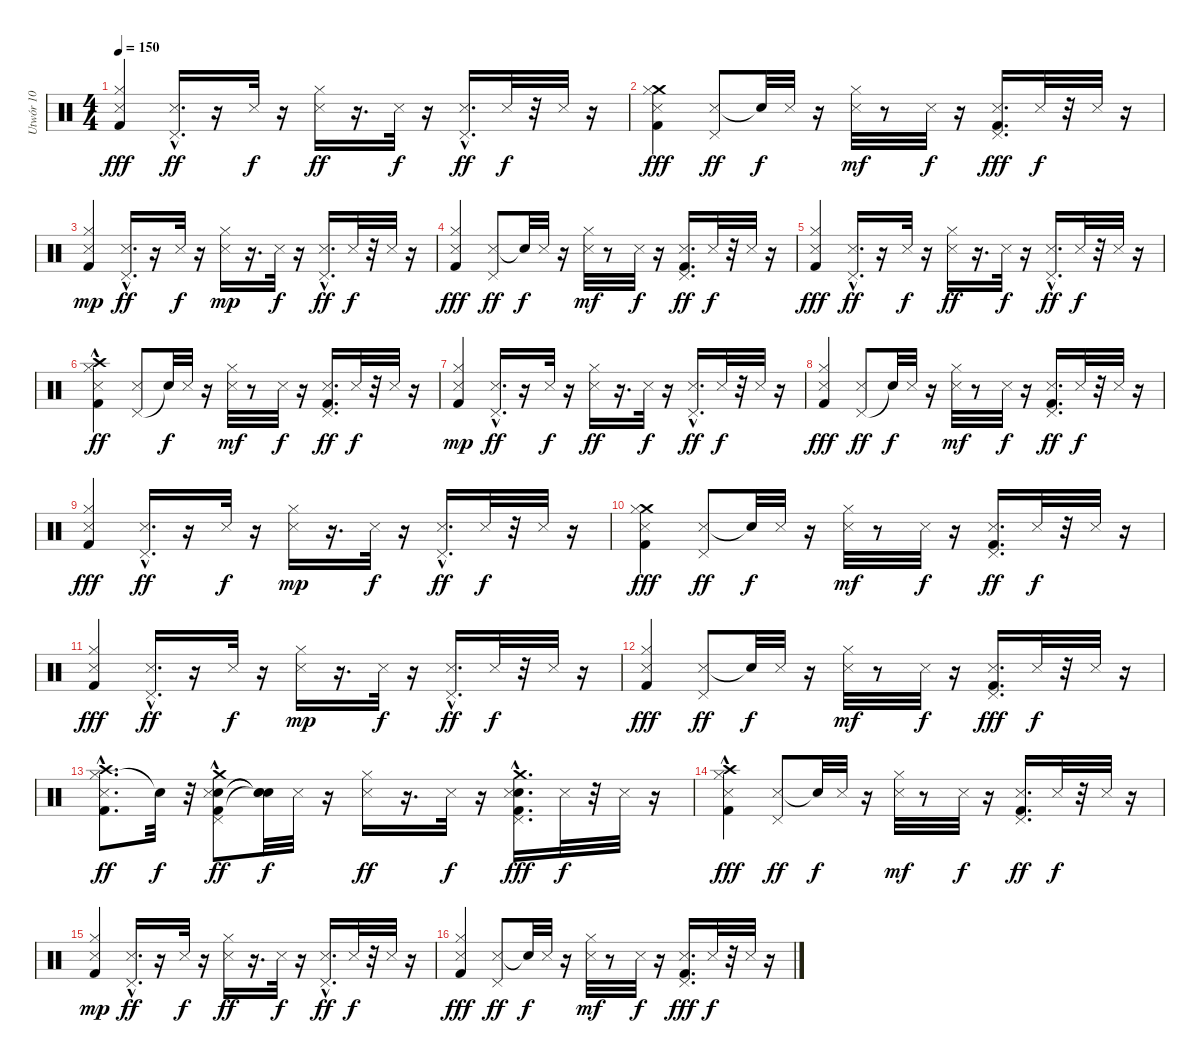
\track ("Utwór 10" "Utwór 10") {instrument percussion}
\staff {score}
\articulation defaults
\ts (4 4)
\tempo 150
\clef neutral
\ks c
("Snare (side stick) 3" "Hi-Hat (closed)" "Kick (hit) 2").4{dy fff} ("Pedal Hi-Hat (hit)"{hac} "Snare (side stick) 3").16{d dy ff} r.16 "Snare (side stick) 3".32{dy f} r.16 ("Hi-Hat (closed)" "Snare (side stick) 3").16{dy ff} r.16{d} "Snare (side stick) 3".32{dy f} r.16 ("Snare (side stick) 3" "Pedal Hi-Hat (hit)"{hac}).16{d dy ff} "Snare (side stick) 3".32{dy f} r.32 "Snare (side stick) 3".32 r.16 |
("Kick (hit) 2" "Snare (side stick) 3" "Crash medium (hit)" "Hi-Hat (closed)").4{dy fff} ("Snare (side stick) 3" "Pedal Hi-Hat (hit)").8{dy ff} "Snare (hit)"{t}.32{dy f} "Snare (side stick) 3".32 r.16 ("Hi-Hat (closed)" "Snare (side stick) 3").32{dy mf} r.8 "Snare (side stick) 3".32{dy f} r.16 ("Pedal Hi-Hat (hit)" "Kick (hit) 2" "Snare (side stick) 3").16{d dy fff} "Snare (side stick) 3".32{dy f} r.32 "Snare (side stick) 3".32 r.16 |
("Kick (hit) 2" "Snare (side stick) 3" "Hi-Hat (closed)").4{dy mp} ("Pedal Hi-Hat (hit)"{hac} "Snare (side stick) 3").16{d dy ff} r.16 "Snare (side stick) 3".32{dy f} r.16 ("Snare (side stick) 3" "Hi-Hat (closed)").16{dy mp} r.16{d} "Snare (side stick) 3".32{dy f} r.16 ("Snare (side stick) 3" "Pedal Hi-Hat (hit)"{hac}).16{d dy ff} "Snare (side stick) 3".32{dy f} r.32 "Snare (side stick) 3".32 r.16 |
("Hi-Hat (closed)" "Kick (hit) 2" "Snare (side stick) 3").4{dy fff} ("Snare (side stick) 3" "Pedal Hi-Hat (hit)").8{dy ff} "Snare (hit)"{t}.32{dy f} "Snare (side stick) 3".32 r.16 ("Snare (side stick) 3" "Hi-Hat (closed)").32{dy mf} r.8 "Snare (side stick) 3".32{dy f} r.16 ("Snare (side stick) 3" "Kick (hit) 2" "Pedal Hi-Hat (hit)").16{d dy ff} "Snare (side stick) 3".32{dy f} r.32 "Snare (side stick) 3".32 r.16 |
("Hi-Hat (closed)" "Kick (hit) 2" "Snare (side stick) 3").4{dy fff} ("Snare (side stick) 3" "Pedal Hi-Hat (hit)"{hac}).16{d dy ff} r.16 "Snare (side stick) 3".32{dy f} r.16 ("Hi-Hat (closed)" "Snare (side stick) 3").16{dy ff} r.16{d} "Snare (side stick) 3".32{dy f} r.16 ("Snare (side stick) 3" "Pedal Hi-Hat (hit)"{hac}).16{d dy ff} "Snare (side stick) 3".32{dy f} r.32 "Snare (side stick) 3".32 r.16 |
("Snare (side stick) 3" "Kick (hit) 2" "Crash high (hit)"{hac} "Hi-Hat (closed)").4{dy ff} ("Pedal Hi-Hat (hit)" "Snare (side stick) 3").8 "Snare (hit)"{t}.32{dy f} "Snare (side stick) 3".32 r.16 ("Hi-Hat (closed)" "Snare (side stick) 3").32{dy mf} r.8 "Snare (side stick) 3".32{dy f} r.16 ("Kick (hit) 2" "Snare (side stick) 3" "Pedal Hi-Hat (hit)").16{d dy ff} "Snare (side stick) 3".32{dy f} r.32 "Snare (side stick) 3".32 r.16 |
("Kick (hit) 2" "Snare (side stick) 3" "Hi-Hat (closed)").4{dy mp} ("Pedal Hi-Hat (hit)"{hac} "Snare (side stick) 3").16{d dy ff} r.16 "Snare (side stick) 3".32{dy f} r.16 ("Hi-Hat (closed)" "Snare (side stick) 3").16{dy ff} r.16{d} "Snare (side stick) 3".32{dy f} r.16 ("Pedal Hi-Hat (hit)"{hac} "Snare (side stick) 3").16{d dy ff} "Snare (side stick) 3".32{dy f} r.32 "Snare (side stick) 3".32 r.16 |
("Snare (side stick) 3" "Hi-Hat (closed)" "Kick (hit) 2").4{dy fff} ("Pedal Hi-Hat (hit)" "Snare (side stick) 3").8{dy ff} "Snare (hit)"{t}.32{dy f} "Snare (side stick) 3".32 r.16 ("Snare (side stick) 3" "Hi-Hat (closed)").32{dy mf} r.8 "Snare (side stick) 3".32{dy f} r.16 ("Kick (hit) 2" "Snare (side stick) 3" "Pedal Hi-Hat (hit)").16{d dy ff} "Snare (side stick) 3".32{dy f} r.32 "Snare (side stick) 3".32 r.16 |
("Hi-Hat (closed)" "Kick (hit) 2" "Snare (side stick) 3").4{dy fff} ("Snare (side stick) 3" "Pedal Hi-Hat (hit)"{hac}).16{d dy ff} r.16 "Snare (side stick) 3".32{dy f} r.16 ("Snare (side stick) 3" "Hi-Hat (closed)").16{dy mp} r.16{d} "Snare (side stick) 3".32{dy f} r.16 ("Snare (side stick) 3" "Pedal Hi-Hat (hit)"{hac}).16{d dy ff} "Snare (side stick) 3".32{dy f} r.32 "Snare (side stick) 3".32 r.16 |
("Crash medium (hit)" "Hi-Hat (closed)" "Snare (side stick) 3" "Kick (hit) 2").4{dy fff} ("Snare (side stick) 3" "Pedal Hi-Hat (hit)").8{dy ff} "Snare (hit)"{t}.32{dy f} "Snare (side stick) 3".32 r.16 ("Hi-Hat (closed)" "Snare (side stick) 3").32{dy mf} r.8 "Snare (side stick) 3".32{dy f} r.16 ("Snare (side stick) 3" "Kick (hit) 2" "Pedal Hi-Hat (hit)").16{d dy ff} "Snare (side stick) 3".32{dy f} r.32 "Snare (side stick) 3".32 r.16 |
("Snare (side stick) 3" "Hi-Hat (closed)" "Kick (hit) 2").4{dy fff} ("Pedal Hi-Hat (hit)"{hac} "Snare (side stick) 3").16{d dy ff} r.16 "Snare (side stick) 3".32{dy f} r.16 ("Snare (side stick) 3" "Hi-Hat (closed)").16{dy mp} r.16{d} "Snare (side stick) 3".32{dy f} r.16 ("Snare (side stick) 3" "Pedal Hi-Hat (hit)"{hac}).16{d dy ff} "Snare (side stick) 3".32{dy f} r.32 "Snare (side stick) 3".32 r.16 |
("Hi-Hat (closed)" "Kick (hit) 2" "Snare (side stick) 3").4{dy fff} ("Snare (side stick) 3" "Pedal Hi-Hat (hit)").8{dy ff} "Snare (hit)"{t}.32{dy f} "Snare (side stick) 3".32 r.16 ("Snare (side stick) 3" "Hi-Hat (closed)").32{dy mf} r.8 "Snare (side stick) 3".32{dy f} r.16 ("Pedal Hi-Hat (hit)" "Kick (hit) 2" "Snare (side stick) 3").16{d dy fff} "Snare (side stick) 3".32{dy f} r.32 "Snare (side stick) 3".32 r.16 |
("Hi-Hat (closed)" "Kick (hit) 2"{hac} "Crash high (hit)"{hac} "Snare (side stick) 3").8{d dy ff} "Snare (hit)"{t}.32{dy f} r.32 ("Kick (hit) 2" "Snare (hit) 2" "Snare (side stick) 3" "Crash medium (hit)" "Pedal Hi-Hat (hit)"{hac}).8{dy ff} ("Snare (hit)"{t} "Snare (hit)"{t} "Snare (hit)"{t}).32{dy f} "Snare (side stick) 3".32 r.16 ("Hi-Hat (closed)" "Snare (side stick) 3").16{dy ff} r.16{d} "Snare (side stick) 3".32{dy f} r.16 ("Pedal Hi-Hat (hit)"{hac} "Snare (hit) 2"{hac} "Kick (hit) 2"{hac} "Snare (side stick) 3" "Crash medium (hit)").16{d dy fff} "Snare (side stick) 3".32{dy f} r.32 "Snare (side stick) 3".32 r.16 |
("Crash high (hit)"{hac} "Hi-Hat (closed)" "Kick (hit) 2" "Snare (side stick) 3").4{dy fff} ("Snare (side stick) 3" "Pedal Hi-Hat (hit)").8{dy ff} "Snare (hit)"{t}.32{dy f} "Snare (side stick) 3".32 r.16 ("Snare (side stick) 3" "Hi-Hat (closed)").32{dy mf} r.8 "Snare (side stick) 3".32{dy f} r.16 ("Kick (hit) 2" "Snare (side stick) 3" "Pedal Hi-Hat (hit)").16{d dy ff} "Snare (side stick) 3".32{dy f} r.32 "Snare (side stick) 3".32 r.16 |
("Kick (hit) 2" "Hi-Hat (closed)" "Snare (side stick) 3").4{dy mp} ("Snare (side stick) 3" "Pedal Hi-Hat (hit)"{hac}).16{d dy ff} r.16 "Snare (side stick) 3".32{dy f} r.16 ("Hi-Hat (closed)" "Snare (side stick) 3").16{dy ff} r.16{d} "Snare (side stick) 3".32{dy f} r.16 ("Pedal Hi-Hat (hit)"{hac} "Snare (side stick) 3").16{d dy ff} "Snare (side stick) 3".32{dy f} r.32 "Snare (side stick) 3".32 r.16 |
("Snare (side stick) 3" "Hi-Hat (closed)" "Kick (hit) 2").4{dy fff} ("Snare (side stick) 3" "Pedal Hi-Hat (hit)").8{dy ff} "Snare (hit)"{t}.32{dy f} "Snare (side stick) 3".32 r.16 ("Snare (side stick) 3" "Hi-Hat (closed)").32{dy mf} r.8 "Snare (side stick) 3".32{dy f} r.16 ("Pedal Hi-Hat (hit)" "Kick (hit) 2" "Snare (side stick) 3").16{d dy fff} "Snare (side stick) 3".32{dy f} r.32 "Snare (side stick) 3".32 r.16
